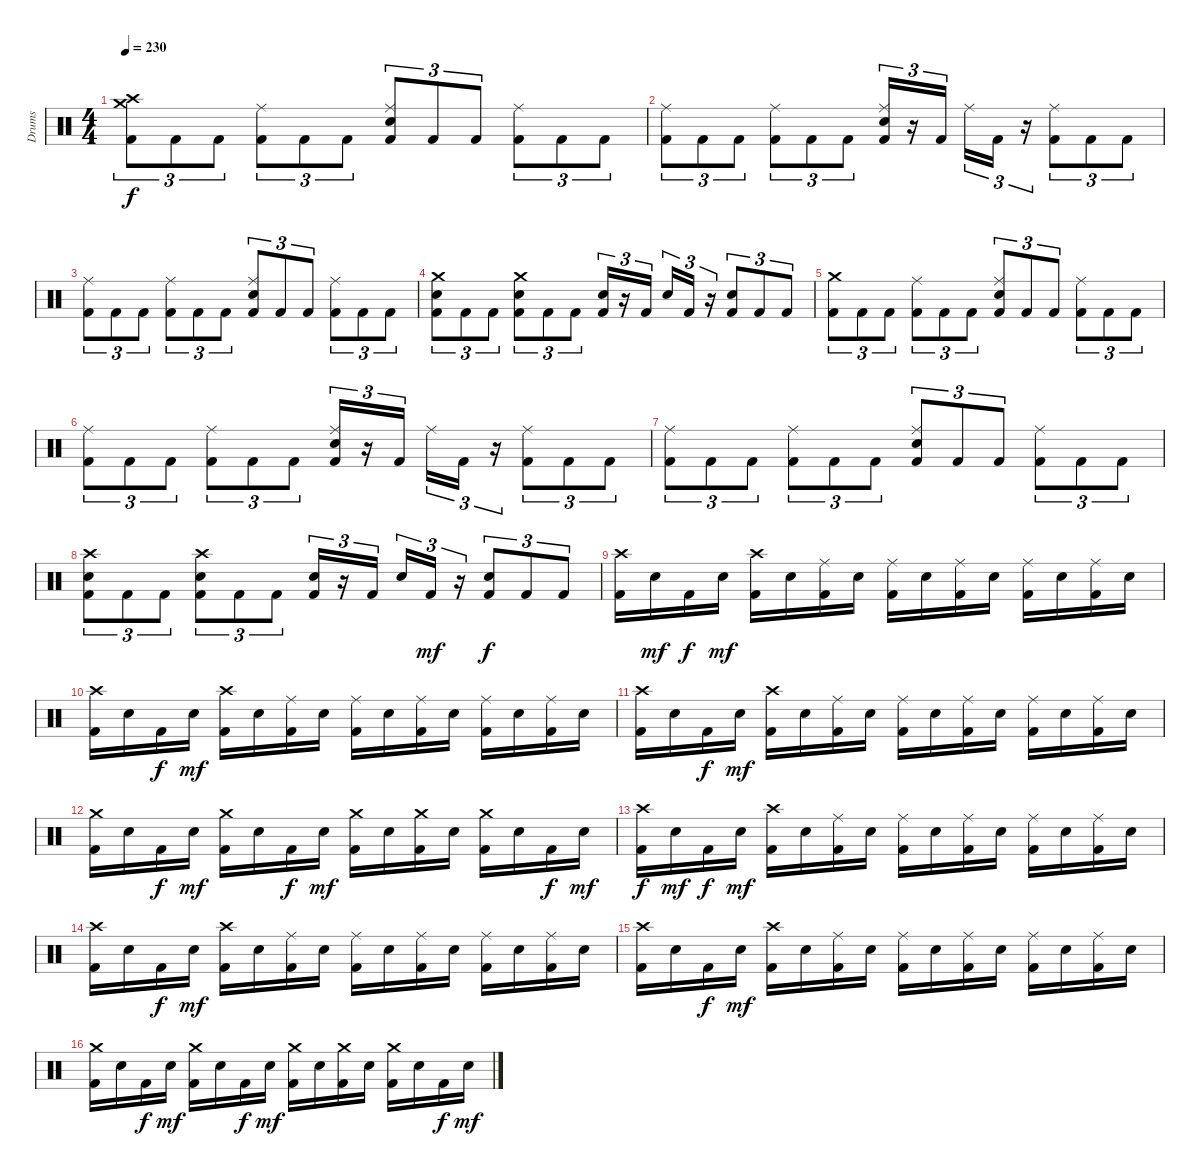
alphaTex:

\track ("Drums" "Drums") {instrument percussion}
\staff {score}
\articulation defaults
\ts (4 4)
\tempo 230
\clef neutral
\ks c
("Crash medium (hit)" "Crash high (hit)" "Kick (hit) 2").8{tu (3 2) dy f} "Kick (hit) 2".8{tu (3 2)} "Kick (hit) 2".8{tu (3 2)} ("Ride (middle)" "Kick (hit) 2").8{tu (3 2)} "Kick (hit) 2".8{tu (3 2)} "Kick (hit) 2".8{tu (3 2)} ("Ride (middle)" "Electric Snare (hit)" "Kick (hit) 2").8{tu (3 2)} "Kick (hit) 2".8{tu (3 2)} "Kick (hit) 2".8{tu (3 2)} ("Ride (middle)" "Kick (hit) 2").8{tu (3 2)} "Kick (hit) 2".8{tu (3 2)} "Kick (hit) 2".8{tu (3 2)} |
("Ride (middle)" "Kick (hit) 2").8{tu (3 2)} "Kick (hit) 2".8{tu (3 2)} "Kick (hit) 2".8{tu (3 2)} ("Ride (middle)" "Kick (hit) 2").8{tu (3 2)} "Kick (hit) 2".8{tu (3 2)} "Kick (hit) 2".8{tu (3 2)} ("Ride (middle)" "Electric Snare (hit)" "Kick (hit) 2").16{tu (3 2)} r.16{tu (3 2)} "Kick (hit) 2".16{tu (3 2) beam splitsecondary} "Ride (middle)".16{tu (3 2)} "Kick (hit) 2".16{tu (3 2)} r.16{tu (3 2)} ("Ride (middle)" "Kick (hit) 2").8{tu (3 2)} "Kick (hit) 2".8{tu (3 2)} "Kick (hit) 2".8{tu (3 2)} |
("Ride (middle)" "Kick (hit) 2").8{tu (3 2)} "Kick (hit) 2".8{tu (3 2)} "Kick (hit) 2".8{tu (3 2)} ("Ride (middle)" "Kick (hit) 2").8{tu (3 2)} "Kick (hit) 2".8{tu (3 2)} "Kick (hit) 2".8{tu (3 2)} ("Ride (middle)" "Electric Snare (hit)" "Kick (hit) 2").8{tu (3 2)} "Kick (hit) 2".8{tu (3 2)} "Kick (hit) 2".8{tu (3 2)} ("Ride (middle)" "Kick (hit) 2").8{tu (3 2)} "Kick (hit) 2".8{tu (3 2)} "Kick (hit) 2".8{tu (3 2)} |
("Crash medium (hit)" "Electric Snare (hit)" "Kick (hit) 2").8{tu (3 2)} "Kick (hit) 2".8{tu (3 2)} "Kick (hit) 2".8{tu (3 2)} ("Crash medium (hit)" "Electric Snare (hit)" "Kick (hit) 2").8{tu (3 2)} "Kick (hit) 2".8{tu (3 2)} "Kick (hit) 2".8{tu (3 2)} ("Electric Snare (hit)" "Kick (hit) 2").16{tu (3 2)} r.16{tu (3 2)} "Kick (hit) 2".16{tu (3 2) beam splitsecondary} "Electric Snare (hit)".16{tu (3 2)} "Kick (hit) 2".16{tu (3 2)} r.16{tu (3 2)} ("Electric Snare (hit)" "Kick (hit) 2").8{tu (3 2)} "Kick (hit) 2".8{tu (3 2)} "Kick (hit) 2".8{tu (3 2)} |
("Crash medium (hit)" "Kick (hit) 2").8{tu (3 2)} "Kick (hit) 2".8{tu (3 2)} "Kick (hit) 2".8{tu (3 2)} ("Ride (middle)" "Kick (hit) 2").8{tu (3 2)} "Kick (hit) 2".8{tu (3 2)} "Kick (hit) 2".8{tu (3 2)} ("Ride (middle)" "Electric Snare (hit)" "Kick (hit) 2").8{tu (3 2)} "Kick (hit) 2".8{tu (3 2)} "Kick (hit) 2".8{tu (3 2)} ("Ride (middle)" "Kick (hit) 2").8{tu (3 2)} "Kick (hit) 2".8{tu (3 2)} "Kick (hit) 2".8{tu (3 2)} |
("Ride (middle)" "Kick (hit) 2").8{tu (3 2)} "Kick (hit) 2".8{tu (3 2)} "Kick (hit) 2".8{tu (3 2)} ("Ride (middle)" "Kick (hit) 2").8{tu (3 2)} "Kick (hit) 2".8{tu (3 2)} "Kick (hit) 2".8{tu (3 2)} ("Ride (middle)" "Electric Snare (hit)" "Kick (hit) 2").16{tu (3 2)} r.16{tu (3 2)} "Kick (hit) 2".16{tu (3 2) beam splitsecondary} "Ride (middle)".16{tu (3 2)} "Kick (hit) 2".16{tu (3 2)} r.16{tu (3 2)} ("Ride (middle)" "Kick (hit) 2").8{tu (3 2)} "Kick (hit) 2".8{tu (3 2)} "Kick (hit) 2".8{tu (3 2)} |
("Ride (middle)" "Kick (hit) 2").8{tu (3 2)} "Kick (hit) 2".8{tu (3 2)} "Kick (hit) 2".8{tu (3 2)} ("Ride (middle)" "Kick (hit) 2").8{tu (3 2)} "Kick (hit) 2".8{tu (3 2)} "Kick (hit) 2".8{tu (3 2)} ("Ride (middle)" "Electric Snare (hit)" "Kick (hit) 2").8{tu (3 2)} "Kick (hit) 2".8{tu (3 2)} "Kick (hit) 2".8{tu (3 2)} ("Ride (middle)" "Kick (hit) 2").8{tu (3 2)} "Kick (hit) 2".8{tu (3 2)} "Kick (hit) 2".8{tu (3 2)} |
("Crash high (hit)" "Electric Snare (hit)" "Kick (hit) 2").8{tu (3 2)} "Kick (hit) 2".8{tu (3 2)} "Kick (hit) 2".8{tu (3 2)} ("Crash high (hit)" "Electric Snare (hit)" "Kick (hit) 2").8{tu (3 2)} "Kick (hit) 2".8{tu (3 2)} "Kick (hit) 2".8{tu (3 2)} ("Electric Snare (hit)" "Kick (hit) 2").16{tu (3 2)} r.16{tu (3 2)} "Kick (hit) 2".16{tu (3 2) beam splitsecondary} "Electric Snare (hit)".16{tu (3 2)} "Kick (hit) 2".16{tu (3 2) dy mf} r.16{tu (3 2)} ("Electric Snare (hit)" "Kick (hit) 2").8{tu (3 2) dy f} "Kick (hit) 2".8{tu (3 2)} "Kick (hit) 2".8{tu (3 2)} |
("Crash high (hit)" "Kick (hit) 2").16 "Electric Snare (hit)".16{dy mf} "Kick (hit) 2".16{dy f} "Electric Snare (hit)".16{dy mf} ("Crash high (hit)" "Kick (hit) 2").16 "Electric Snare (hit)".16 ("Ride (middle)" "Kick (hit) 2").16 "Electric Snare (hit)".16 ("Ride (middle)" "Kick (hit) 2").16 "Electric Snare (hit)".16 ("Ride (middle)" "Kick (hit) 2").16 "Electric Snare (hit)".16 ("Ride (middle)" "Kick (hit) 2").16 "Electric Snare (hit)".16 ("Ride (middle)" "Kick (hit) 2").16 "Electric Snare (hit)".16 |
("Crash high (hit)" "Kick (hit) 2").16 "Electric Snare (hit)".16 "Kick (hit) 2".16{dy f} "Electric Snare (hit)".16{dy mf} ("Crash high (hit)" "Kick (hit) 2").16 "Electric Snare (hit)".16 ("Ride (middle)" "Kick (hit) 2").16 "Electric Snare (hit)".16 ("Ride (middle)" "Kick (hit) 2").16 "Electric Snare (hit)".16 ("Ride (middle)" "Kick (hit) 2").16 "Electric Snare (hit)".16 ("Ride (middle)" "Kick (hit) 2").16 "Electric Snare (hit)".16 ("Ride (middle)" "Kick (hit) 2").16 "Electric Snare (hit)".16 |
("Crash high (hit)" "Kick (hit) 2").16 "Electric Snare (hit)".16 "Kick (hit) 2".16{dy f} "Electric Snare (hit)".16{dy mf} ("Crash high (hit)" "Kick (hit) 2").16 "Electric Snare (hit)".16 ("Ride (middle)" "Kick (hit) 2").16 "Electric Snare (hit)".16 ("Ride (middle)" "Kick (hit) 2").16 "Electric Snare (hit)".16 ("Ride (middle)" "Kick (hit) 2").16 "Electric Snare (hit)".16 ("Ride (middle)" "Kick (hit) 2").16 "Electric Snare (hit)".16 ("Ride (middle)" "Kick (hit) 2").16 "Electric Snare (hit)".16 |
("Crash medium (hit)" "Kick (hit) 2").16 "Electric Snare (hit)".16 "Kick (hit) 2".16{dy f} "Electric Snare (hit)".16{dy mf} ("Crash medium (hit)" "Kick (hit) 2").16 "Electric Snare (hit)".16 "Kick (hit) 2".16{dy f} "Electric Snare (hit)".16{dy mf} ("Crash medium (hit)" "Kick (hit) 2").16 "Electric Snare (hit)".16 ("Crash medium (hit)" "Kick (hit) 2").16 "Electric Snare (hit)".16 ("Crash medium (hit)" "Kick (hit) 2").16 "Electric Snare (hit)".16 "Kick (hit) 2".16{dy f} "Electric Snare (hit)".16{dy mf} |
("Crash high (hit)" "Kick (hit) 2").16{dy f} "Electric Snare (hit)".16{dy mf} "Kick (hit) 2".16{dy f} "Electric Snare (hit)".16{dy mf} ("Crash high (hit)" "Kick (hit) 2").16 "Electric Snare (hit)".16 ("Ride (middle)" "Kick (hit) 2").16 "Electric Snare (hit)".16 ("Ride (middle)" "Kick (hit) 2").16 "Electric Snare (hit)".16 ("Ride (middle)" "Kick (hit) 2").16 "Electric Snare (hit)".16 ("Ride (middle)" "Kick (hit) 2").16 "Electric Snare (hit)".16 ("Ride (middle)" "Kick (hit) 2").16 "Electric Snare (hit)".16 |
("Crash high (hit)" "Kick (hit) 2").16 "Electric Snare (hit)".16 "Kick (hit) 2".16{dy f} "Electric Snare (hit)".16{dy mf} ("Crash high (hit)" "Kick (hit) 2").16 "Electric Snare (hit)".16 ("Ride (middle)" "Kick (hit) 2").16 "Electric Snare (hit)".16 ("Ride (middle)" "Kick (hit) 2").16 "Electric Snare (hit)".16 ("Ride (middle)" "Kick (hit) 2").16 "Electric Snare (hit)".16 ("Ride (middle)" "Kick (hit) 2").16 "Electric Snare (hit)".16 ("Ride (middle)" "Kick (hit) 2").16 "Electric Snare (hit)".16 |
("Crash high (hit)" "Kick (hit) 2").16 "Electric Snare (hit)".16 "Kick (hit) 2".16{dy f} "Electric Snare (hit)".16{dy mf} ("Crash high (hit)" "Kick (hit) 2").16 "Electric Snare (hit)".16 ("Ride (middle)" "Kick (hit) 2").16 "Electric Snare (hit)".16 ("Ride (middle)" "Kick (hit) 2").16 "Electric Snare (hit)".16 ("Ride (middle)" "Kick (hit) 2").16 "Electric Snare (hit)".16 ("Ride (middle)" "Kick (hit) 2").16 "Electric Snare (hit)".16 ("Ride (middle)" "Kick (hit) 2").16 "Electric Snare (hit)".16 |
("Crash medium (hit)" "Kick (hit) 2").16 "Electric Snare (hit)".16 "Kick (hit) 2".16{dy f} "Electric Snare (hit)".16{dy mf} ("Crash medium (hit)" "Kick (hit) 2").16 "Electric Snare (hit)".16 "Kick (hit) 2".16{dy f} "Electric Snare (hit)".16{dy mf} ("Crash medium (hit)" "Kick (hit) 2").16 "Electric Snare (hit)".16 ("Crash medium (hit)" "Kick (hit) 2").16 "Electric Snare (hit)".16 ("Crash medium (hit)" "Kick (hit) 2").16 "Electric Snare (hit)".16 "Kick (hit) 2".16{dy f} "Electric Snare (hit)".16{dy mf}
